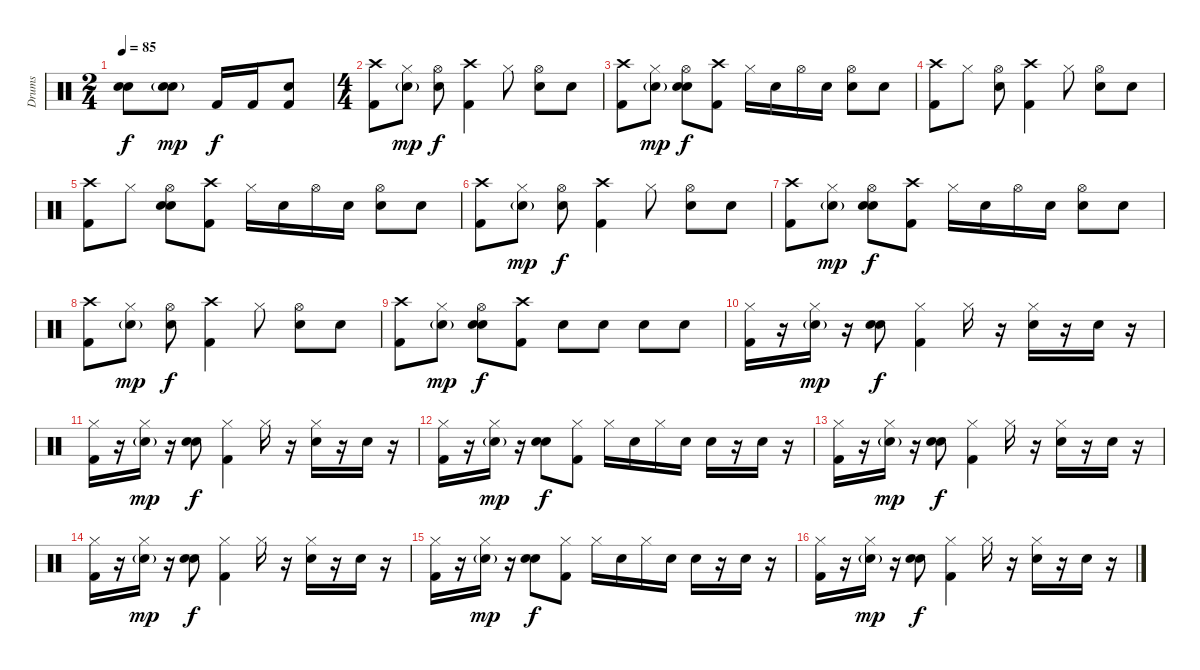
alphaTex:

\track ("Drums" "Drums") {instrument percussion}
\staff {score}
\articulation defaults
\ts (2 4)
\tempo 85
\clef neutral
\ks c
("Electric Snare (hit)" "Snare (hit) 2").8{dy f} ("Electric Snare (hit)"{g} "Snare (hit) 2").8{dy mp} "Kick (hit) 2".16{dy f} "Kick (hit) 2".16 ("Snare (hit) 2" "Kick (hit) 2").8 |
\ts (4 4)
("Crash high (hit)" "Kick (hit) 2").8 ("Hi-Hat (closed)" "Electric Snare (hit)"{g}).8{dy mp} ("Hi-Hat (open)" "Electric Snare (hit)").8{dy f} ("Crash high (hit)" "Kick (hit) 2").4 "Hi-Hat (closed)".8 ("Hi-Hat (open)" "Electric Snare (hit)").8 "Electric Snare (hit)".8 |
("Crash high (hit)" "Kick (hit) 2").8 ("Hi-Hat (closed)" "Electric Snare (hit)"{g}).8{dy mp} ("Snare (hit) 2" "Hi-Hat (open)" "Electric Snare (hit)").8{dy f} ("Crash high (hit)" "Kick (hit) 2").8 "Hi-Hat (closed)".16 "Electric Snare (hit)".16 "Hi-Hat (open)".16 "Electric Snare (hit)".16 ("Hi-Hat (open)" "Snare (hit) 2").8 "Snare (hit) 2".8 |
("Crash high (hit)" "Kick (hit) 2").8 "Hi-Hat (closed)".8 ("Hi-Hat (open)" "Electric Snare (hit)").8 ("Crash high (hit)" "Kick (hit) 2").4 "Hi-Hat (closed)".8 ("Hi-Hat (open)" "Electric Snare (hit)").8 "Electric Snare (hit)".8 |
("Crash high (hit)" "Kick (hit) 2").8 "Hi-Hat (closed)".8 ("Snare (hit) 2" "Hi-Hat (open)" "Electric Snare (hit)").8 ("Crash high (hit)" "Kick (hit) 2").8 "Hi-Hat (closed)".16 "Electric Snare (hit)".16 "Hi-Hat (open)".16 "Electric Snare (hit)".16 ("Hi-Hat (open)" "Snare (hit) 2").8 "Snare (hit) 2".8 |
("Crash high (hit)" "Kick (hit) 2").8 ("Hi-Hat (closed)" "Electric Snare (hit)"{g}).8{dy mp} ("Hi-Hat (open)" "Electric Snare (hit)").8{dy f} ("Crash high (hit)" "Kick (hit) 2").4 "Hi-Hat (closed)".8 ("Hi-Hat (open)" "Electric Snare (hit)").8 "Electric Snare (hit)".8 |
("Crash high (hit)" "Kick (hit) 2").8 ("Hi-Hat (closed)" "Electric Snare (hit)"{g}).8{dy mp} ("Snare (hit) 2" "Hi-Hat (open)" "Electric Snare (hit)").8{dy f} ("Crash high (hit)" "Kick (hit) 2").8 "Hi-Hat (closed)".16 "Electric Snare (hit)".16 "Hi-Hat (open)".16 "Electric Snare (hit)".16 ("Hi-Hat (open)" "Snare (hit) 2").8 "Snare (hit) 2".8 |
("Crash high (hit)" "Kick (hit) 2").8 ("Hi-Hat (closed)" "Electric Snare (hit)"{g}).8{dy mp} ("Hi-Hat (open)" "Electric Snare (hit)").8{dy f} ("Crash high (hit)" "Kick (hit) 2").4 "Hi-Hat (closed)".8 ("Hi-Hat (open)" "Electric Snare (hit)").8 "Electric Snare (hit)".8 |
("Crash high (hit)" "Kick (hit) 2").8 ("Hi-Hat (closed)" "Electric Snare (hit)"{g}).8{dy mp} ("Snare (hit) 2" "Hi-Hat (open)" "Electric Snare (hit)").8{dy f} ("Crash high (hit)" "Kick (hit) 2").8 "Electric Snare (hit)".8 "Electric Snare (hit)".8 "Snare (hit) 2".8 "Snare (hit) 2".8 |
("Hi-Hat (closed)" "Kick (hit) 2").16 r.16 ("Hi-Hat (closed)" "Electric Snare (hit)"{g}).16{dy mp} r.16 ("Electric Snare (hit)" "Snare (hit) 2").8{dy f} ("Hi-Hat (closed)" "Kick (hit) 2").4 "Hi-Hat (closed)".16 r.16 ("Hi-Hat (closed)" "Snare (hit) 2").16 r.16 "Electric Snare (hit)".16 r.16 |
("Hi-Hat (closed)" "Kick (hit) 2").16 r.16 ("Hi-Hat (closed)" "Electric Snare (hit)"{g}).16{dy mp} r.16 ("Electric Snare (hit)" "Snare (hit) 2").8{dy f} ("Hi-Hat (closed)" "Kick (hit) 2").4 "Hi-Hat (closed)".16 r.16 ("Hi-Hat (closed)" "Snare (hit) 2").16 r.16 "Electric Snare (hit)".16 r.16 |
("Hi-Hat (closed)" "Kick (hit) 2").16 r.16 ("Hi-Hat (closed)" "Electric Snare (hit)"{g}).16{dy mp} r.16 ("Electric Snare (hit)" "Snare (hit) 2").8{dy f} ("Hi-Hat (closed)" "Kick (hit) 2").8 "Hi-Hat (closed)".16 "Electric Snare (hit)".16 "Hi-Hat (closed)".16 "Electric Snare (hit)".16 "Snare (hit) 2".16 r.16 "Electric Snare (hit)".16 r.16 |
("Hi-Hat (closed)" "Kick (hit) 2").16 r.16 ("Hi-Hat (closed)" "Electric Snare (hit)"{g}).16{dy mp} r.16 ("Electric Snare (hit)" "Snare (hit) 2").8{dy f} ("Hi-Hat (closed)" "Kick (hit) 2").4 "Hi-Hat (closed)".16 r.16 ("Hi-Hat (closed)" "Snare (hit) 2").16 r.16 "Electric Snare (hit)".16 r.16 |
("Hi-Hat (closed)" "Kick (hit) 2").16 r.16 ("Hi-Hat (closed)" "Electric Snare (hit)"{g}).16{dy mp} r.16 ("Electric Snare (hit)" "Snare (hit) 2").8{dy f} ("Hi-Hat (closed)" "Kick (hit) 2").4 "Hi-Hat (closed)".16 r.16 ("Hi-Hat (closed)" "Snare (hit) 2").16 r.16 "Electric Snare (hit)".16 r.16 |
("Hi-Hat (closed)" "Kick (hit) 2").16 r.16 ("Hi-Hat (closed)" "Electric Snare (hit)"{g}).16{dy mp} r.16 ("Electric Snare (hit)" "Snare (hit) 2").8{dy f} ("Hi-Hat (closed)" "Kick (hit) 2").8 "Hi-Hat (closed)".16 "Electric Snare (hit)".16 "Hi-Hat (closed)".16 "Electric Snare (hit)".16 "Snare (hit) 2".16 r.16 "Electric Snare (hit)".16 r.16 |
("Hi-Hat (closed)" "Kick (hit) 2").16 r.16 ("Hi-Hat (closed)" "Electric Snare (hit)"{g}).16{dy mp} r.16 ("Electric Snare (hit)" "Snare (hit) 2").8{dy f} ("Hi-Hat (closed)" "Kick (hit) 2").4 "Hi-Hat (closed)".16 r.16 ("Hi-Hat (closed)" "Snare (hit) 2").16 r.16 "Electric Snare (hit)".16 r.16
